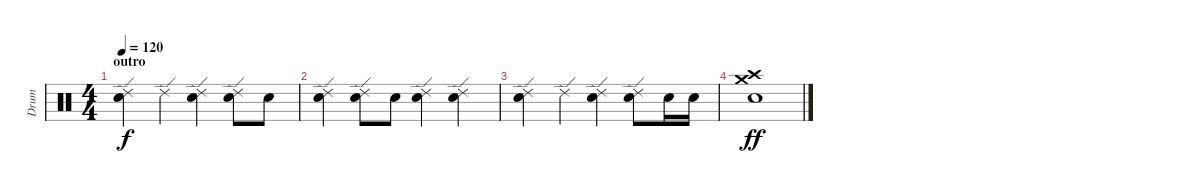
\track ("Drum" "Drum") {instrument percussion}
\staff {score}
\articulation defaults
\ts (4 4)
\section ("" "outro")
\tempo 120
\clef neutral
\ks c
("Electric Snare (hit)" "Ride (edge) 2").4{dy f} "Ride (edge) 2".4 ("Electric Snare (hit)" "Ride (edge) 2").4 ("Electric Snare (hit)" "Ride (edge) 2").8 "Electric Snare (hit)".8 |
("Electric Snare (hit)" "Ride (edge) 2").4 ("Electric Snare (hit)" "Ride (edge) 2").8 "Electric Snare (hit)".8 ("Electric Snare (hit)" "Ride (edge) 2").4 ("Electric Snare (hit)" "Ride (edge) 2").4 |
("Electric Snare (hit)" "Ride (edge) 2").4 "Ride (edge) 2".4 ("Electric Snare (hit)" "Ride (edge) 2").4 ("Electric Snare (hit)" "Ride (edge) 2").8 "Electric Snare (hit)".16 "Electric Snare (hit)".16 |
("Electric Snare (hit)" "Crash medium (hit)" "Crash high (hit)").1{dy ff}
